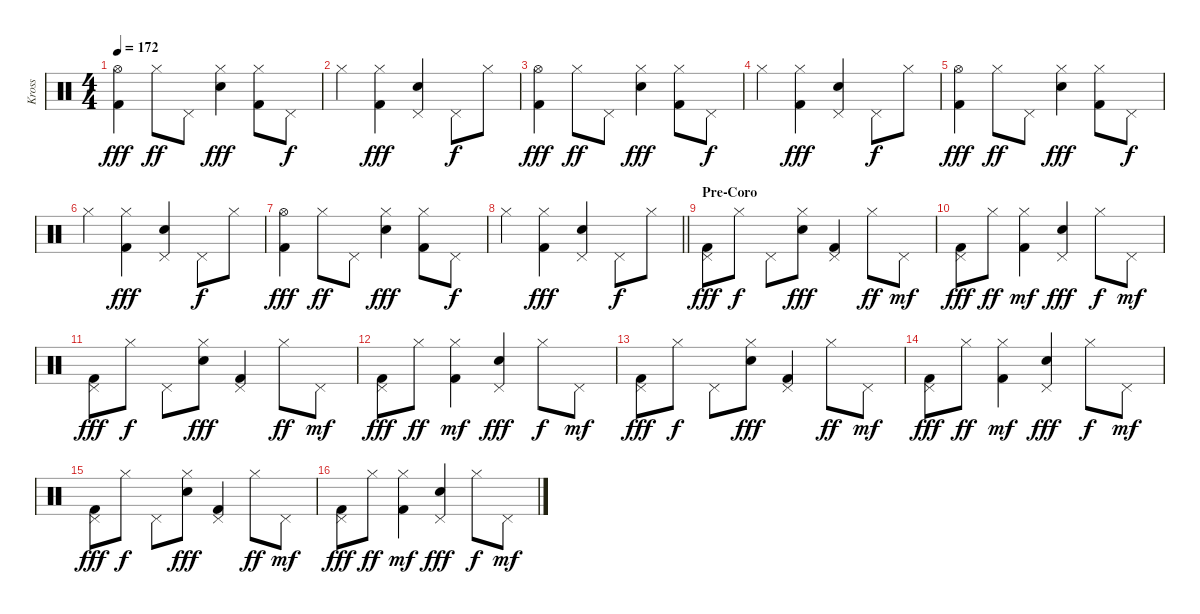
\track ("Kross" "Kross") {instrument percussion}
\staff {score}
\articulation defaults
\ts (4 4)
\tempo 172
\clef neutral
\ks c
("Hi-Hat (open)" "Kick (hit) 2").4{dy fff} "Hi-Hat (closed)".8{dy ff} "Pedal Hi-Hat (hit)".8 ("Hi-Hat (closed)" "Snare (hit) 2").4{dy fff} ("Hi-Hat (closed)" "Kick (hit) 2").8 "Pedal Hi-Hat (hit)".8{dy f} |
"Hi-Hat (closed)".4 ("Hi-Hat (closed)" "Kick (hit) 2").4{dy fff} ("Pedal Hi-Hat (hit)" "Snare (hit) 2").4 "Pedal Hi-Hat (hit)".8{dy f} "Hi-Hat (closed)".8 |
("Hi-Hat (open)" "Kick (hit) 2").4{dy fff} "Hi-Hat (closed)".8{dy ff} "Pedal Hi-Hat (hit)".8 ("Hi-Hat (closed)" "Snare (hit) 2").4{dy fff} ("Hi-Hat (closed)" "Kick (hit) 2").8 "Pedal Hi-Hat (hit)".8{dy f} |
"Hi-Hat (closed)".4 ("Hi-Hat (closed)" "Kick (hit) 2").4{dy fff} ("Pedal Hi-Hat (hit)" "Snare (hit) 2").4 "Pedal Hi-Hat (hit)".8{dy f} "Hi-Hat (closed)".8 |
("Hi-Hat (open)" "Kick (hit) 2").4{dy fff} "Hi-Hat (closed)".8{dy ff} "Pedal Hi-Hat (hit)".8 ("Hi-Hat (closed)" "Snare (hit) 2").4{dy fff} ("Hi-Hat (closed)" "Kick (hit) 2").8 "Pedal Hi-Hat (hit)".8{dy f} |
"Hi-Hat (closed)".4 ("Hi-Hat (closed)" "Kick (hit) 2").4{dy fff} ("Pedal Hi-Hat (hit)" "Snare (hit) 2").4 "Pedal Hi-Hat (hit)".8{dy f} "Hi-Hat (closed)".8 |
("Hi-Hat (open)" "Kick (hit) 2").4{dy fff} "Hi-Hat (closed)".8{dy ff} "Pedal Hi-Hat (hit)".8 ("Hi-Hat (closed)" "Snare (hit) 2").4{dy fff} ("Hi-Hat (closed)" "Kick (hit) 2").8 "Pedal Hi-Hat (hit)".8{dy f} |
\barLineRight lightlight "Hi-Hat (closed)".4
("Hi-Hat (closed)" "Kick (hit) 2").4{dy fff} ("Pedal Hi-Hat (hit)" "Snare (hit) 2").4 "Pedal Hi-Hat (hit)".8{dy f} "Hi-Hat (closed)".8 |
\section ("" "Pre-Coro")
("Pedal Hi-Hat (hit)" "Kick (hit) 2").8{dy fff} "Hi-Hat (closed)".8{dy f} "Pedal Hi-Hat (hit)".8 ("Hi-Hat (closed)" "Snare (hit) 2").8{dy fff} ("Pedal Hi-Hat (hit)" "Kick (hit) 2").4 "Hi-Hat (closed)".8{dy ff} "Pedal Hi-Hat (hit)".8{dy mf} |
("Pedal Hi-Hat (hit)" "Kick (hit) 2").8{dy fff} "Hi-Hat (closed)".8{dy ff} ("Hi-Hat (closed)" "Kick (hit) 2").4{dy mf} ("Pedal Hi-Hat (hit)" "Snare (hit) 2").4{dy fff} "Hi-Hat (closed)".8{dy f} "Pedal Hi-Hat (hit)".8{dy mf} |
("Pedal Hi-Hat (hit)" "Kick (hit) 2").8{dy fff} "Hi-Hat (closed)".8{dy f} "Pedal Hi-Hat (hit)".8 ("Hi-Hat (closed)" "Snare (hit) 2").8{dy fff} ("Pedal Hi-Hat (hit)" "Kick (hit) 2").4 "Hi-Hat (closed)".8{dy ff} "Pedal Hi-Hat (hit)".8{dy mf} |
("Pedal Hi-Hat (hit)" "Kick (hit) 2").8{dy fff} "Hi-Hat (closed)".8{dy ff} ("Hi-Hat (closed)" "Kick (hit) 2").4{dy mf} ("Pedal Hi-Hat (hit)" "Snare (hit) 2").4{dy fff} "Hi-Hat (closed)".8{dy f} "Pedal Hi-Hat (hit)".8{dy mf} |
("Pedal Hi-Hat (hit)" "Kick (hit) 2").8{dy fff} "Hi-Hat (closed)".8{dy f} "Pedal Hi-Hat (hit)".8 ("Hi-Hat (closed)" "Snare (hit) 2").8{dy fff} ("Pedal Hi-Hat (hit)" "Kick (hit) 2").4 "Hi-Hat (closed)".8{dy ff} "Pedal Hi-Hat (hit)".8{dy mf} |
("Pedal Hi-Hat (hit)" "Kick (hit) 2").8{dy fff} "Hi-Hat (closed)".8{dy ff} ("Hi-Hat (closed)" "Kick (hit) 2").4{dy mf} ("Pedal Hi-Hat (hit)" "Snare (hit) 2").4{dy fff} "Hi-Hat (closed)".8{dy f} "Pedal Hi-Hat (hit)".8{dy mf} |
("Pedal Hi-Hat (hit)" "Kick (hit) 2").8{dy fff} "Hi-Hat (closed)".8{dy f} "Pedal Hi-Hat (hit)".8 ("Hi-Hat (closed)" "Snare (hit) 2").8{dy fff} ("Pedal Hi-Hat (hit)" "Kick (hit) 2").4 "Hi-Hat (closed)".8{dy ff} "Pedal Hi-Hat (hit)".8{dy mf} |
("Pedal Hi-Hat (hit)" "Kick (hit) 2").8{dy fff} "Hi-Hat (closed)".8{dy ff} ("Hi-Hat (closed)" "Kick (hit) 2").4{dy mf} ("Pedal Hi-Hat (hit)" "Snare (hit) 2").4{dy fff} "Hi-Hat (closed)".8{dy f} "Pedal Hi-Hat (hit)".8{dy mf}
